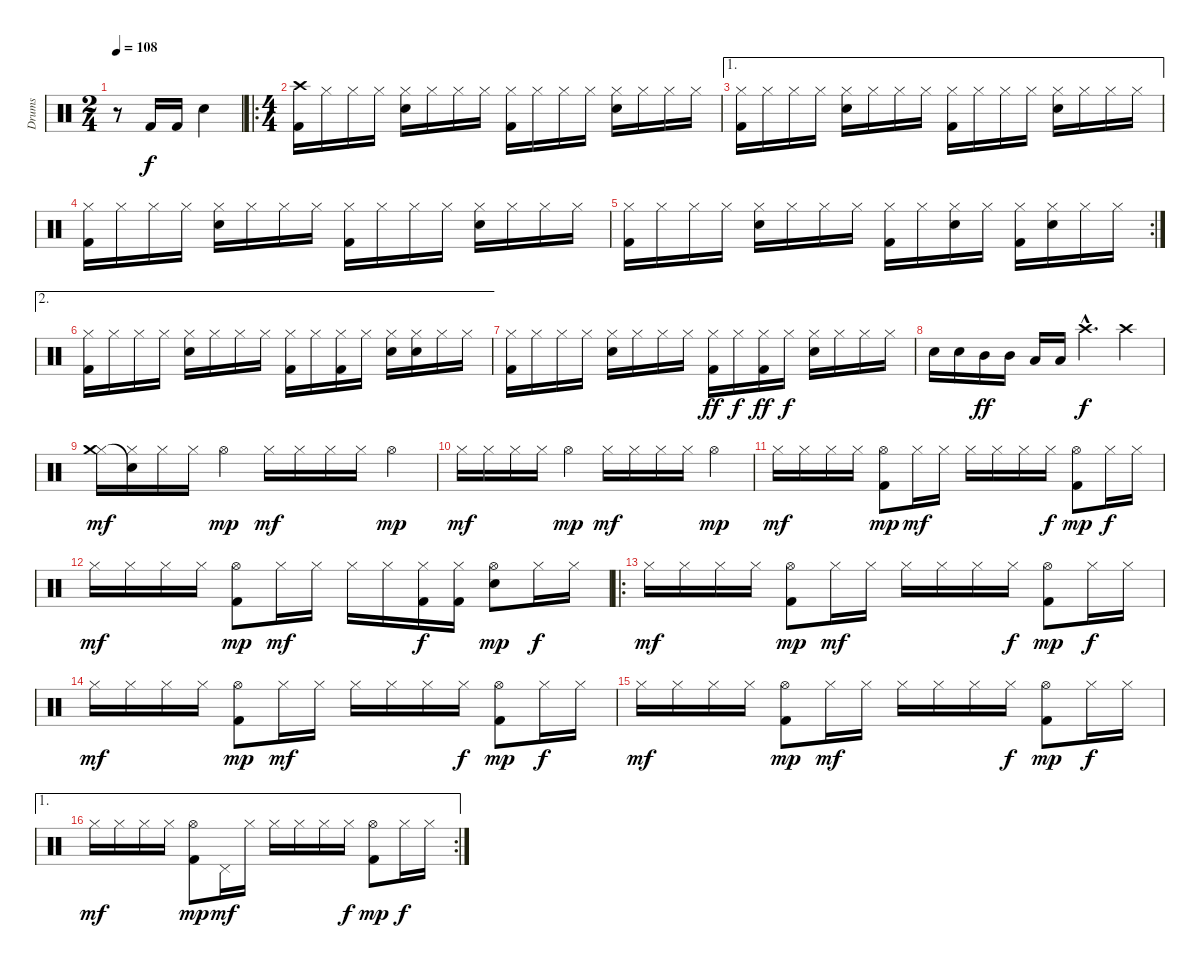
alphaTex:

\track ("Drums" "Drums") {instrument percussion}
\staff {score}
\articulation defaults
\ts (2 4)
\tempo 108
\clef neutral
\ks c
r.8{dy f} "Kick (hit) 2".16 "Kick (hit) 2".16 "Snare (hit) 2".4 |
\ro
\ts (4 4)
("Crash high (hit)" "Kick (hit) 2").16 "Hi-Hat (closed)".16 "Hi-Hat (closed)".16 "Hi-Hat (closed)".16 ("Hi-Hat (closed)" "Snare (hit) 2").16 "Hi-Hat (closed)".16 "Hi-Hat (closed)".16 "Hi-Hat (closed)".16 ("Hi-Hat (closed)" "Kick (hit) 2").16 "Hi-Hat (closed)".16 "Hi-Hat (closed)".16 "Hi-Hat (closed)".16 ("Hi-Hat (closed)" "Snare (hit) 2").16 "Hi-Hat (closed)".16 "Hi-Hat (closed)".16 "Hi-Hat (closed)".16 |
\ae 1
("Hi-Hat (closed)" "Kick (hit) 2").16 "Hi-Hat (closed)".16 "Hi-Hat (closed)".16 "Hi-Hat (closed)".16 ("Hi-Hat (closed)" "Snare (hit) 2").16 "Hi-Hat (closed)".16 "Hi-Hat (closed)".16 "Hi-Hat (closed)".16 ("Hi-Hat (closed)" "Kick (hit) 2").16 "Hi-Hat (closed)".16 "Hi-Hat (closed)".16 "Hi-Hat (closed)".16 ("Hi-Hat (closed)" "Snare (hit) 2").16 "Hi-Hat (closed)".16 "Hi-Hat (closed)".16 "Hi-Hat (closed)".16 |
("Hi-Hat (closed)" "Kick (hit) 2").16 "Hi-Hat (closed)".16 "Hi-Hat (closed)".16 "Hi-Hat (closed)".16 ("Hi-Hat (closed)" "Snare (hit) 2").16 "Hi-Hat (closed)".16 "Hi-Hat (closed)".16 "Hi-Hat (closed)".16 ("Hi-Hat (closed)" "Kick (hit) 2").16 "Hi-Hat (closed)".16 "Hi-Hat (closed)".16 "Hi-Hat (closed)".16 ("Hi-Hat (closed)" "Snare (hit) 2").16 "Hi-Hat (closed)".16 "Hi-Hat (closed)".16 "Hi-Hat (closed)".16 |
\rc 2
("Hi-Hat (closed)" "Kick (hit) 2").16 "Hi-Hat (closed)".16 "Hi-Hat (closed)".16 "Hi-Hat (closed)".16 ("Hi-Hat (closed)" "Snare (hit) 2").16 "Hi-Hat (closed)".16 "Hi-Hat (closed)".16 "Hi-Hat (closed)".16 ("Hi-Hat (closed)" "Kick (hit) 2").16 "Hi-Hat (closed)".16 ("Hi-Hat (closed)" "Snare (hit) 2").16 "Hi-Hat (closed)".16 ("Hi-Hat (closed)" "Kick (hit) 2").16 ("Hi-Hat (closed)" "Snare (hit) 2").16 "Hi-Hat (closed)".16 "Hi-Hat (closed)".16 |
\ae 2
("Hi-Hat (closed)" "Kick (hit) 2").16 "Hi-Hat (closed)".16 "Hi-Hat (closed)".16 "Hi-Hat (closed)".16 ("Hi-Hat (closed)" "Snare (hit) 2").16 "Hi-Hat (closed)".16 "Hi-Hat (closed)".16 "Hi-Hat (closed)".16 ("Hi-Hat (closed)" "Kick (hit) 2").16 "Hi-Hat (closed)".16 ("Hi-Hat (closed)" "Kick (hit) 2").16 "Hi-Hat (closed)".16 ("Hi-Hat (closed)" "Snare (hit) 2").16 ("Hi-Hat (closed)" "Snare (hit) 2").16 "Hi-Hat (closed)".16 "Hi-Hat (closed)".16 |
("Hi-Hat (closed)" "Kick (hit) 2").16 "Hi-Hat (closed)".16 "Hi-Hat (closed)".16 "Hi-Hat (closed)".16 ("Hi-Hat (closed)" "Snare (hit) 2").16 "Hi-Hat (closed)".16 "Hi-Hat (closed)".16 "Hi-Hat (closed)".16 ("Hi-Hat (closed)" "Kick (hit) 2").16{dy ff} "Hi-Hat (closed)".16{dy f} ("Hi-Hat (closed)" "Kick (hit) 2").16{dy ff} "Hi-Hat (closed)".16{dy f} ("Hi-Hat (closed)" "Snare (hit) 2").16 "Hi-Hat (closed)".16 "Hi-Hat (closed)".16 "Hi-Hat (closed)".16 |
"Snare (hit) 2".16 "Snare (hit) 2".16 "Mid Tom (hit)".16{dy ff} "Mid Tom (hit)".16 "Low Tom (hit)".16 "Low Tom (hit)".16 "Crash high (hit)"{hac}.4{d dy f} "Crash high (hit)".4 |
("Hi-Hat (closed)" "Crash medium (hit)").16{dy mf} ("Hi-Hat (closed)" "Snare (hit)"{t}).16 "Hi-Hat (closed)".16 "Hi-Hat (closed)".16 "Hi-Hat (open)".4{dy mp} "Hi-Hat (closed)".16{dy mf} "Hi-Hat (closed)".16 "Hi-Hat (closed)".16 "Hi-Hat (closed)".16 "Hi-Hat (open)".4{dy mp} |
"Hi-Hat (closed)".16{dy mf} "Hi-Hat (closed)".16 "Hi-Hat (closed)".16 "Hi-Hat (closed)".16 "Hi-Hat (open)".4{dy mp} "Hi-Hat (closed)".16{dy mf} "Hi-Hat (closed)".16 "Hi-Hat (closed)".16 "Hi-Hat (closed)".16 "Hi-Hat (open)".4{dy mp} |
"Hi-Hat (closed)".16{dy mf} "Hi-Hat (closed)".16 "Hi-Hat (closed)".16 "Hi-Hat (closed)".16 ("Hi-Hat (open)" "Kick (hit) 2").8{dy mp} "Hi-Hat (closed)".16{dy mf} "Hi-Hat (closed)".16 "Hi-Hat (closed)".16 "Hi-Hat (closed)".16 "Hi-Hat (closed)".16 "Hi-Hat (closed)".16{dy f} ("Hi-Hat (open)" "Kick (hit) 2").8{dy mp} "Hi-Hat (closed)".16{dy f} "Hi-Hat (closed)".16 |
"Hi-Hat (closed)".16{dy mf} "Hi-Hat (closed)".16 "Hi-Hat (closed)".16 "Hi-Hat (closed)".16 ("Hi-Hat (open)" "Kick (hit) 2").8{dy mp} "Hi-Hat (closed)".16{dy mf} "Hi-Hat (closed)".16 "Hi-Hat (closed)".16 "Hi-Hat (closed)".16 ("Hi-Hat (closed)" "Kick (hit) 2").16{dy f} ("Hi-Hat (closed)" "Kick (hit) 2").16 ("Hi-Hat (open)" "Snare (hit) 2").8{dy mp} "Hi-Hat (closed)".16{dy f} "Hi-Hat (closed)".16 |
\ro "Hi-Hat (closed)".16{dy mf} "Hi-Hat (closed)".16 "Hi-Hat (closed)".16 "Hi-Hat (closed)".16
("Hi-Hat (open)" "Kick (hit) 2").8{dy mp} "Hi-Hat (closed)".16{dy mf} "Hi-Hat (closed)".16 "Hi-Hat (closed)".16 "Hi-Hat (closed)".16 "Hi-Hat (closed)".16 "Hi-Hat (closed)".16{dy f} ("Hi-Hat (open)" "Kick (hit) 2").8{dy mp} "Hi-Hat (closed)".16{dy f} "Hi-Hat (closed)".16 |
"Hi-Hat (closed)".16{dy mf} "Hi-Hat (closed)".16 "Hi-Hat (closed)".16 "Hi-Hat (closed)".16 ("Hi-Hat (open)" "Kick (hit) 2").8{dy mp} "Hi-Hat (closed)".16{dy mf} "Hi-Hat (closed)".16 "Hi-Hat (closed)".16 "Hi-Hat (closed)".16 "Hi-Hat (closed)".16 "Hi-Hat (closed)".16{dy f} ("Hi-Hat (open)" "Kick (hit) 2").8{dy mp} "Hi-Hat (closed)".16{dy f} "Hi-Hat (closed)".16 |
"Hi-Hat (closed)".16{dy mf} "Hi-Hat (closed)".16 "Hi-Hat (closed)".16 "Hi-Hat (closed)".16 ("Hi-Hat (open)" "Kick (hit) 2").8{dy mp} "Hi-Hat (closed)".16{dy mf} "Hi-Hat (closed)".16 "Hi-Hat (closed)".16 "Hi-Hat (closed)".16 "Hi-Hat (closed)".16 "Hi-Hat (closed)".16{dy f} ("Hi-Hat (open)" "Kick (hit) 2").8{dy mp} "Hi-Hat (closed)".16{dy f} "Hi-Hat (closed)".16 |
\ae 1
\rc 2 "Hi-Hat (closed)".16{dy mf} "Hi-Hat (closed)".16 "Hi-Hat (closed)".16 "Hi-Hat (closed)".16
("Hi-Hat (open)" "Kick (hit) 2").8{dy mp} "Pedal Hi-Hat (hit)".16{dy mf} "Hi-Hat (closed)".16 "Hi-Hat (closed)".16 "Hi-Hat (closed)".16 "Hi-Hat (closed)".16 "Hi-Hat (closed)".16{dy f} ("Hi-Hat (open)" "Kick (hit) 2").8{dy mp} "Hi-Hat (closed)".16{dy f} "Hi-Hat (closed)".16
